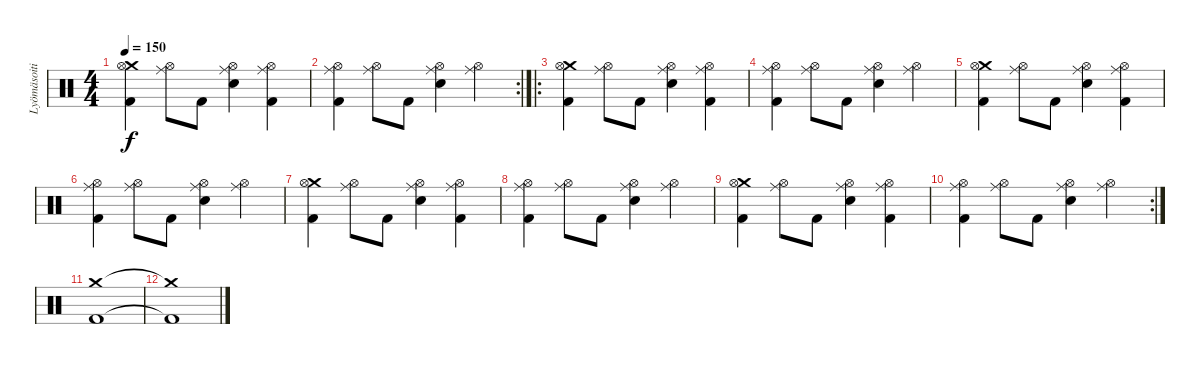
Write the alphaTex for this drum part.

\track ("Lyömäsoitin" "Lyömäsoiti") {instrument percussion}
\staff
\articulation defaults
\ts (4 4)
\tempo 150
\clef neutral
\ks c
("Crash medium (hit)" "Hi-Hat (open)" "Kick (hit) 2").4{dy f} ("Ride (middle)" "Hi-Hat (open)").8 "Kick (hit) 2".8 ("Ride (middle)" "Hi-Hat (open)" "Snare (hit) 2").4 ("Ride (middle)" "Hi-Hat (open)" "Kick (hit) 2").4 |
\rc 2
("Ride (middle)" "Hi-Hat (open)" "Kick (hit) 2").4 ("Ride (middle)" "Hi-Hat (open)").8 "Kick (hit) 2".8 ("Ride (middle)" "Hi-Hat (open)" "Snare (hit) 2").4 ("Ride (middle)" "Hi-Hat (open)").4 |
\ro
("Crash medium (hit)" "Hi-Hat (open)" "Kick (hit) 2").4 ("Ride (middle)" "Hi-Hat (open)").8 "Kick (hit) 2".8 ("Ride (middle)" "Hi-Hat (open)" "Snare (hit) 2").4 ("Ride (middle)" "Hi-Hat (open)" "Kick (hit) 2").4 |
("Ride (middle)" "Hi-Hat (open)" "Kick (hit) 2").4 ("Ride (middle)" "Hi-Hat (open)").8 "Kick (hit) 2".8 ("Ride (middle)" "Hi-Hat (open)" "Snare (hit) 2").4 ("Ride (middle)" "Hi-Hat (open)").4 |
("Crash medium (hit)" "Hi-Hat (open)" "Kick (hit) 2").4 ("Ride (middle)" "Hi-Hat (open)").8 "Kick (hit) 2".8 ("Ride (middle)" "Hi-Hat (open)" "Snare (hit) 2").4 ("Ride (middle)" "Hi-Hat (open)" "Kick (hit) 2").4 |
("Ride (middle)" "Hi-Hat (open)" "Kick (hit) 2").4 ("Ride (middle)" "Hi-Hat (open)").8 "Kick (hit) 2".8 ("Ride (middle)" "Hi-Hat (open)" "Snare (hit) 2").4 ("Ride (middle)" "Hi-Hat (open)").4 |
("Crash medium (hit)" "Hi-Hat (open)" "Kick (hit) 2").4 ("Ride (middle)" "Hi-Hat (open)").8 "Kick (hit) 2".8 ("Ride (middle)" "Hi-Hat (open)" "Snare (hit) 2").4 ("Ride (middle)" "Hi-Hat (open)" "Kick (hit) 2").4 |
("Ride (middle)" "Hi-Hat (open)" "Kick (hit) 2").4 ("Ride (middle)" "Hi-Hat (open)").8 "Kick (hit) 2".8 ("Ride (middle)" "Hi-Hat (open)" "Snare (hit) 2").4 ("Ride (middle)" "Hi-Hat (open)").4 |
("Crash medium (hit)" "Hi-Hat (open)" "Kick (hit) 2").4 ("Ride (middle)" "Hi-Hat (open)").8 "Kick (hit) 2".8 ("Ride (middle)" "Hi-Hat (open)" "Snare (hit) 2").4 ("Ride (middle)" "Hi-Hat (open)" "Kick (hit) 2").4 |
\rc 2
("Ride (middle)" "Hi-Hat (open)" "Kick (hit) 2").4 ("Ride (middle)" "Hi-Hat (open)").8 "Kick (hit) 2".8 ("Ride (middle)" "Hi-Hat (open)" "Snare (hit) 2").4 ("Ride (middle)" "Hi-Hat (open)").4 |
("Crash medium (hit)" "Kick (hit) 2").1 |
("Crash medium (hit)"{t} "Kick (hit) 2"{t}).1
